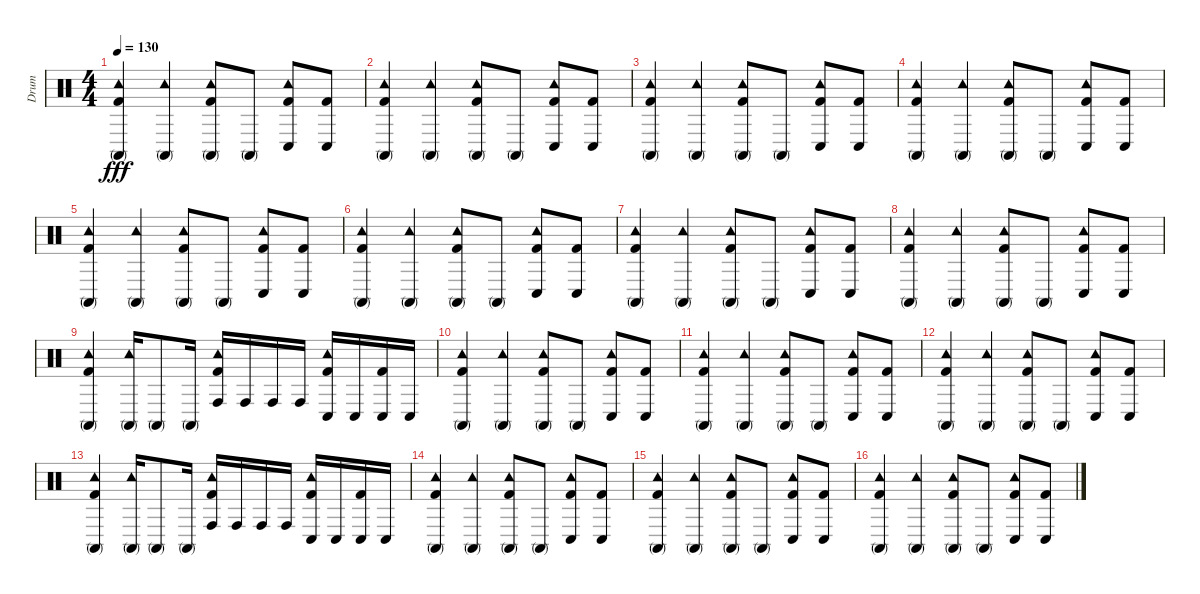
\track ("Drum" "Drum") {instrument percussion}
\staff {score}
\articulation defaults
\ts (4 4)
\tempo 130
\clef neutral
\ks c
("Tambourine (hit)" "Conga high (mute)" "Kick (hit) 2").4{dy fff} ("Tambourine (hit)" "Conga high (mute)").4 ("Tambourine (hit)" "Conga high (mute)" "Kick (hit) 2").8 "Conga high (mute)".8 ("Tambourine (hit)" "Conga low (hit)" "Kick (hit) 2").8 ("Conga low (hit)" "Kick (hit) 2").8 |
("Tambourine (hit)" "Conga high (mute)" "Kick (hit) 2").4 ("Tambourine (hit)" "Conga high (mute)").4 ("Tambourine (hit)" "Conga high (mute)" "Kick (hit) 2").8 "Conga high (mute)".8 ("Tambourine (hit)" "Conga low (hit)" "Kick (hit) 2").8 ("Conga low (hit)" "Kick (hit) 2").8 |
("Tambourine (hit)" "Conga high (mute)" "Kick (hit) 2").4 ("Tambourine (hit)" "Conga high (mute)").4 ("Tambourine (hit)" "Conga high (mute)" "Kick (hit) 2").8 "Conga high (mute)".8 ("Tambourine (hit)" "Conga low (hit)" "Kick (hit) 2").8 ("Conga low (hit)" "Kick (hit) 2").8 |
("Tambourine (hit)" "Conga high (mute)" "Kick (hit) 2").4 ("Tambourine (hit)" "Conga high (mute)").4 ("Tambourine (hit)" "Conga high (mute)" "Kick (hit) 2").8 "Conga high (mute)".8 ("Tambourine (hit)" "Conga low (hit)" "Kick (hit) 2").8 ("Conga low (hit)" "Kick (hit) 2").8 |
("Tambourine (hit)" "Conga high (mute)" "Kick (hit) 2").4 ("Tambourine (hit)" "Conga high (mute)").4 ("Tambourine (hit)" "Conga high (mute)" "Kick (hit) 2").8 "Conga high (mute)".8 ("Tambourine (hit)" "Conga low (hit)" "Kick (hit) 2").8 ("Conga low (hit)" "Kick (hit) 2").8 |
("Tambourine (hit)" "Conga high (mute)" "Kick (hit) 2").4 ("Tambourine (hit)" "Conga high (mute)").4 ("Tambourine (hit)" "Conga high (mute)" "Kick (hit) 2").8 "Conga high (mute)".8 ("Tambourine (hit)" "Conga low (hit)" "Kick (hit) 2").8 ("Conga low (hit)" "Kick (hit) 2").8 |
("Tambourine (hit)" "Conga high (mute)" "Kick (hit) 2").4 ("Tambourine (hit)" "Conga high (mute)").4 ("Tambourine (hit)" "Conga high (mute)" "Kick (hit) 2").8 "Conga high (mute)".8 ("Tambourine (hit)" "Conga low (hit)" "Kick (hit) 2").8 ("Conga low (hit)" "Kick (hit) 2").8 |
("Tambourine (hit)" "Conga high (mute)" "Kick (hit) 2").4 ("Tambourine (hit)" "Conga high (mute)").4 ("Tambourine (hit)" "Conga high (mute)" "Kick (hit) 2").8 "Conga high (mute)".8 ("Tambourine (hit)" "Conga low (hit)" "Kick (hit) 2").8 ("Conga low (hit)" "Kick (hit) 2").8 |
("Tambourine (hit)" "Conga high (mute)" "Kick (hit) 2").4 ("Tambourine (hit)" "Conga high (mute)").16 "Conga high (mute)".8 "Conga high (mute)".16 ("Tambourine (hit)" "Conga high (hit)" "Kick (hit) 2").16 "Conga high (hit)".16 "Conga high (hit)".16 "Conga high (hit)".16 ("Tambourine (hit)" "Conga low (hit)" "Kick (hit) 2").16 "Conga low (hit)".16 ("Conga low (hit)" "Kick (hit) 2").16 "Conga low (hit)".16 |
("Tambourine (hit)" "Conga high (mute)" "Kick (hit) 2").4 ("Tambourine (hit)" "Conga high (mute)").4 ("Tambourine (hit)" "Conga high (mute)" "Kick (hit) 2").8 "Conga high (mute)".8 ("Tambourine (hit)" "Conga low (hit)" "Kick (hit) 2").8 ("Conga low (hit)" "Kick (hit) 2").8 |
("Tambourine (hit)" "Conga high (mute)" "Kick (hit) 2").4 ("Tambourine (hit)" "Conga high (mute)").4 ("Tambourine (hit)" "Conga high (mute)" "Kick (hit) 2").8 "Conga high (mute)".8 ("Tambourine (hit)" "Conga low (hit)" "Kick (hit) 2").8 ("Conga low (hit)" "Kick (hit) 2").8 |
("Tambourine (hit)" "Conga high (mute)" "Kick (hit) 2").4 ("Tambourine (hit)" "Conga high (mute)").4 ("Tambourine (hit)" "Conga high (mute)" "Kick (hit) 2").8 "Conga high (mute)".8 ("Tambourine (hit)" "Conga low (hit)" "Kick (hit) 2").8 ("Conga low (hit)" "Kick (hit) 2").8 |
("Tambourine (hit)" "Conga high (mute)" "Kick (hit) 2").4 ("Tambourine (hit)" "Conga high (mute)").16 "Conga high (mute)".8 "Conga high (mute)".16 ("Tambourine (hit)" "Conga high (hit)" "Kick (hit) 2").16 "Conga high (hit)".16 "Conga high (hit)".16 "Conga high (hit)".16 ("Tambourine (hit)" "Conga low (hit)" "Kick (hit) 2").16 "Conga low (hit)".16 ("Conga low (hit)" "Kick (hit) 2").16 "Conga low (hit)".16 |
("Tambourine (hit)" "Conga high (mute)" "Kick (hit) 2").4 ("Tambourine (hit)" "Conga high (mute)").4 ("Tambourine (hit)" "Conga high (mute)" "Kick (hit) 2").8 "Conga high (mute)".8 ("Tambourine (hit)" "Conga low (hit)" "Kick (hit) 2").8 ("Conga low (hit)" "Kick (hit) 2").8 |
("Tambourine (hit)" "Conga high (mute)" "Kick (hit) 2").4 ("Tambourine (hit)" "Conga high (mute)").4 ("Tambourine (hit)" "Conga high (mute)" "Kick (hit) 2").8 "Conga high (mute)".8 ("Tambourine (hit)" "Conga low (hit)" "Kick (hit) 2").8 ("Conga low (hit)" "Kick (hit) 2").8 |
("Tambourine (hit)" "Conga high (mute)" "Kick (hit) 2").4 ("Tambourine (hit)" "Conga high (mute)").4 ("Tambourine (hit)" "Conga high (mute)" "Kick (hit) 2").8 "Conga high (mute)".8 ("Tambourine (hit)" "Conga low (hit)" "Kick (hit) 2").8 ("Conga low (hit)" "Kick (hit) 2").8
